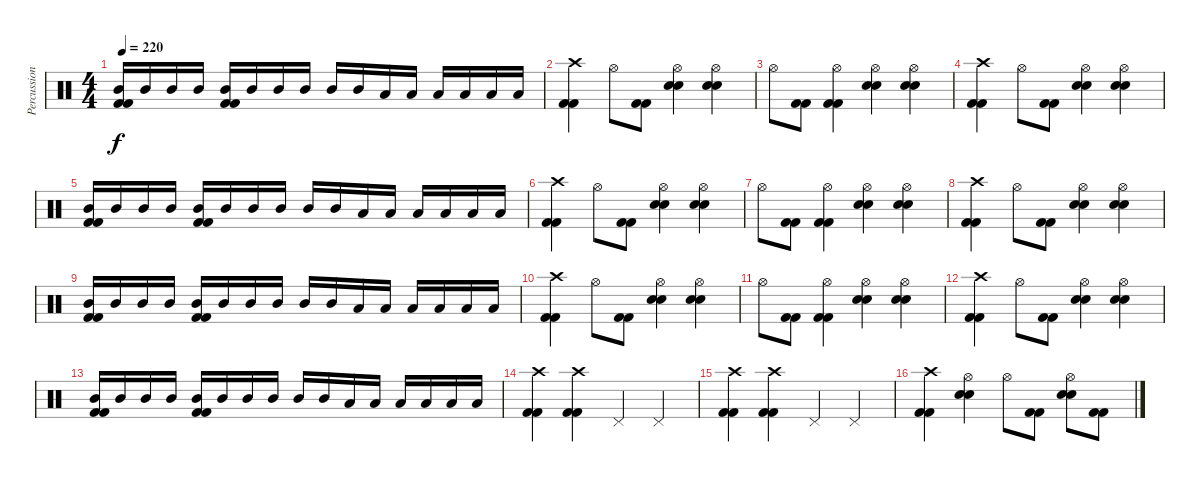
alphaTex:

\track ("Percussion" "Percussion") {instrument percussion}
\staff {score}
\articulation defaults
\ts (4 4)
\tempo 220
\clef neutral
\ks c
("Mid Tom (hit)" "Kick (hit) 2" "Kick (hit) 2").16{dy f} "Mid Tom (hit)".16 "Mid Tom (hit)".16 "Mid Tom (hit)".16 ("Mid Tom (hit)" "Kick (hit) 2" "Kick (hit) 2").16 "Mid Tom (hit)".16 "Mid Tom (hit)".16 "Mid Tom (hit)".16 "Mid Tom (hit)".16 "Mid Tom (hit)".16 "Low Tom (hit)".16 "Low Tom (hit)".16 "Low Tom (hit)".16 "Low Tom (hit)".16 "Low Tom (hit)".16 "Low Tom (hit)".16 |
("Crash high (hit)" "Kick (hit) 2" "Kick (hit) 2").4 "Hi-Hat (open)".8 ("Kick (hit) 2" "Kick (hit) 2").8 ("Hi-Hat (open)" "Electric Snare (hit)" "Electric Snare (hit)").4 ("Hi-Hat (open)" "Electric Snare (hit)" "Electric Snare (hit)").4 |
"Hi-Hat (open)".8 ("Kick (hit) 2" "Kick (hit) 2").8 ("Hi-Hat (open)" "Kick (hit) 2" "Kick (hit) 2").4 ("Hi-Hat (open)" "Electric Snare (hit)" "Electric Snare (hit)").4 ("Hi-Hat (open)" "Electric Snare (hit)" "Electric Snare (hit)").4 |
("Crash high (hit)" "Kick (hit) 2" "Kick (hit) 2").4 "Hi-Hat (open)".8 ("Kick (hit) 2" "Kick (hit) 2").8 ("Hi-Hat (open)" "Electric Snare (hit)" "Electric Snare (hit)").4 ("Hi-Hat (open)" "Electric Snare (hit)" "Electric Snare (hit)").4 |
("Mid Tom (hit)" "Kick (hit) 2" "Kick (hit) 2").16 "Mid Tom (hit)".16 "Mid Tom (hit)".16 "Mid Tom (hit)".16 ("Mid Tom (hit)" "Kick (hit) 2" "Kick (hit) 2").16 "Mid Tom (hit)".16 "Mid Tom (hit)".16 "Mid Tom (hit)".16 "Mid Tom (hit)".16 "Mid Tom (hit)".16 "Low Tom (hit)".16 "Low Tom (hit)".16 "Low Tom (hit)".16 "Low Tom (hit)".16 "Low Tom (hit)".16 "Low Tom (hit)".16 |
("Crash high (hit)" "Kick (hit) 2" "Kick (hit) 2").4 "Hi-Hat (open)".8 ("Kick (hit) 2" "Kick (hit) 2").8 ("Hi-Hat (open)" "Electric Snare (hit)" "Electric Snare (hit)").4 ("Hi-Hat (open)" "Electric Snare (hit)" "Electric Snare (hit)").4 |
"Hi-Hat (open)".8 ("Kick (hit) 2" "Kick (hit) 2").8 ("Hi-Hat (open)" "Kick (hit) 2" "Kick (hit) 2").4 ("Hi-Hat (open)" "Electric Snare (hit)" "Electric Snare (hit)").4 ("Hi-Hat (open)" "Electric Snare (hit)" "Electric Snare (hit)").4 |
("Crash high (hit)" "Kick (hit) 2" "Kick (hit) 2").4 "Hi-Hat (open)".8 ("Kick (hit) 2" "Kick (hit) 2").8 ("Hi-Hat (open)" "Electric Snare (hit)" "Electric Snare (hit)").4 ("Hi-Hat (open)" "Electric Snare (hit)" "Electric Snare (hit)").4 |
("Mid Tom (hit)" "Kick (hit) 2" "Kick (hit) 2").16 "Mid Tom (hit)".16 "Mid Tom (hit)".16 "Mid Tom (hit)".16 ("Mid Tom (hit)" "Kick (hit) 2" "Kick (hit) 2").16 "Mid Tom (hit)".16 "Mid Tom (hit)".16 "Mid Tom (hit)".16 "Mid Tom (hit)".16 "Mid Tom (hit)".16 "Low Tom (hit)".16 "Low Tom (hit)".16 "Low Tom (hit)".16 "Low Tom (hit)".16 "Low Tom (hit)".16 "Low Tom (hit)".16 |
("Crash high (hit)" "Kick (hit) 2" "Kick (hit) 2").4 "Hi-Hat (open)".8 ("Kick (hit) 2" "Kick (hit) 2").8 ("Hi-Hat (open)" "Electric Snare (hit)" "Electric Snare (hit)").4 ("Hi-Hat (open)" "Electric Snare (hit)" "Electric Snare (hit)").4 |
"Hi-Hat (open)".8 ("Kick (hit) 2" "Kick (hit) 2").8 ("Hi-Hat (open)" "Kick (hit) 2" "Kick (hit) 2").4 ("Hi-Hat (open)" "Electric Snare (hit)" "Electric Snare (hit)").4 ("Hi-Hat (open)" "Electric Snare (hit)" "Electric Snare (hit)").4 |
("Crash high (hit)" "Kick (hit) 2" "Kick (hit) 2").4 "Hi-Hat (open)".8 ("Kick (hit) 2" "Kick (hit) 2").8 ("Hi-Hat (open)" "Electric Snare (hit)" "Electric Snare (hit)").4 ("Hi-Hat (open)" "Electric Snare (hit)" "Electric Snare (hit)").4 |
("Mid Tom (hit)" "Kick (hit) 2" "Kick (hit) 2").16 "Mid Tom (hit)".16 "Mid Tom (hit)".16 "Mid Tom (hit)".16 ("Mid Tom (hit)" "Kick (hit) 2" "Kick (hit) 2").16 "Mid Tom (hit)".16 "Mid Tom (hit)".16 "Mid Tom (hit)".16 "Mid Tom (hit)".16 "Mid Tom (hit)".16 "Low Tom (hit)".16 "Low Tom (hit)".16 "Low Tom (hit)".16 "Low Tom (hit)".16 "Low Tom (hit)".16 "Low Tom (hit)".16 |
("Crash high (hit)" "Kick (hit) 2" "Kick (hit) 2").4 ("Crash high (hit)" "Kick (hit) 2" "Kick (hit) 2").4 "Pedal Hi-Hat (hit)".4 "Pedal Hi-Hat (hit)".4 |
("Crash high (hit)" "Kick (hit) 2" "Kick (hit) 2").4 ("Crash high (hit)" "Kick (hit) 2" "Kick (hit) 2").4 "Pedal Hi-Hat (hit)".4 "Pedal Hi-Hat (hit)".4 |
("Crash high (hit)" "Kick (hit) 2" "Kick (hit) 2").4 ("Hi-Hat (open)" "Electric Snare (hit)" "Electric Snare (hit)").4 "Hi-Hat (open)".8 ("Kick (hit) 2" "Kick (hit) 2").8 ("Hi-Hat (open)" "Electric Snare (hit)" "Electric Snare (hit)").8 ("Kick (hit) 2" "Kick (hit) 2").8
